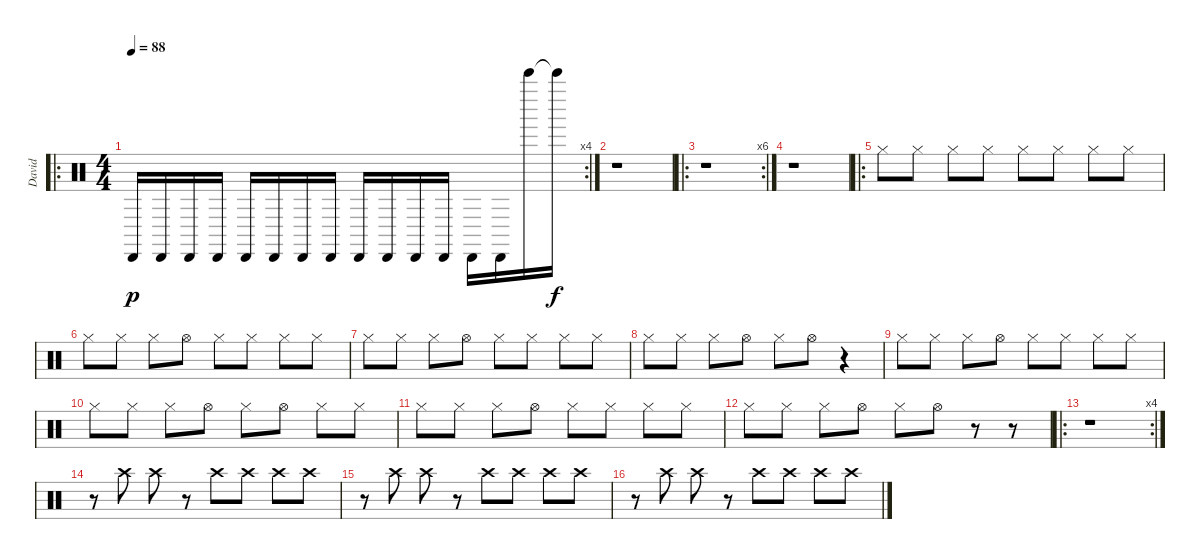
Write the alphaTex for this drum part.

\track ("David" "David") {instrument percussion}
\staff {score}
\articulation defaults
\ro
\rc 4
\ts (4 4)
\tempo 88
\clef neutral
\ks c "Cabasa (hit)".16{dy p} "Cabasa (hit)".16 "Cabasa (hit)".16 "Cabasa (hit)".16 "Cabasa (hit)".16 "Cabasa (hit)".16 "Cabasa (hit)".16 "Cabasa (hit)".16 "Cabasa (hit)".16 "Cabasa (hit)".16 "Cabasa (hit)".16 "Cabasa (hit)".16 "Cabasa (hit)".16 "Cabasa (hit)".16 "Bell Tree (hit)".16 "Bell Tree (hit)"{t}.16{dy f}
|
r.1 |
\ro
\rc 6
r.1 |
r.1 |
\ro "Hi-Hat (closed)".8 "Hi-Hat (closed)".8 "Hi-Hat (closed)".8 "Hi-Hat (closed)".8 "Hi-Hat (closed)".8 "Hi-Hat (closed)".8 "Hi-Hat (closed)".8 "Hi-Hat (closed)".8
|
"Hi-Hat (closed)".8 "Hi-Hat (closed)".8 "Hi-Hat (closed)".8 "Hi-Hat (open)".8 "Hi-Hat (closed)".8 "Hi-Hat (closed)".8 "Hi-Hat (closed)".8 "Hi-Hat (closed)".8 |
"Hi-Hat (closed)".8 "Hi-Hat (closed)".8 "Hi-Hat (closed)".8 "Hi-Hat (open)".8 "Hi-Hat (closed)".8 "Hi-Hat (closed)".8 "Hi-Hat (closed)".8 "Hi-Hat (closed)".8 |
"Hi-Hat (closed)".8 "Hi-Hat (closed)".8 "Hi-Hat (closed)".8 "Hi-Hat (open)".8 "Hi-Hat (closed)".8 "Hi-Hat (open)".8 r.4 |
"Hi-Hat (closed)".8 "Hi-Hat (closed)".8 "Hi-Hat (closed)".8 "Hi-Hat (open)".8 "Hi-Hat (closed)".8 "Hi-Hat (closed)".8 "Hi-Hat (closed)".8 "Hi-Hat (closed)".8 |
"Hi-Hat (closed)".8 "Hi-Hat (closed)".8 "Hi-Hat (closed)".8 "Hi-Hat (open)".8 "Hi-Hat (closed)".8 "Hi-Hat (open)".8 "Hi-Hat (closed)".8 "Hi-Hat (closed)".8 |
"Hi-Hat (closed)".8 "Hi-Hat (closed)".8 "Hi-Hat (closed)".8 "Hi-Hat (open)".8 "Hi-Hat (closed)".8 "Hi-Hat (closed)".8 "Hi-Hat (closed)".8 "Hi-Hat (closed)".8 |
"Hi-Hat (closed)".8 "Hi-Hat (closed)".8 "Hi-Hat (closed)".8 "Hi-Hat (open)".8 "Hi-Hat (closed)".8 "Hi-Hat (open)".8 r.8 r.8 |
\ro
\rc 4
r.1 |
r.8{volume 16} "Crash high (hit)".8 "Crash high (hit)".8 r.8 "Crash high (hit)".8 "Crash high (hit)".8 "Crash high (hit)".8 "Crash high (hit)".8 |
r.8 "Crash high (hit)".8 "Crash high (hit)".8 r.8 "Crash high (hit)".8 "Crash high (hit)".8 "Crash high (hit)".8 "Crash high (hit)".8 |
r.8 "Crash high (hit)".8 "Crash high (hit)".8 r.8 "Crash high (hit)".8 "Crash high (hit)".8 "Crash high (hit)".8 "Crash high (hit)".8
